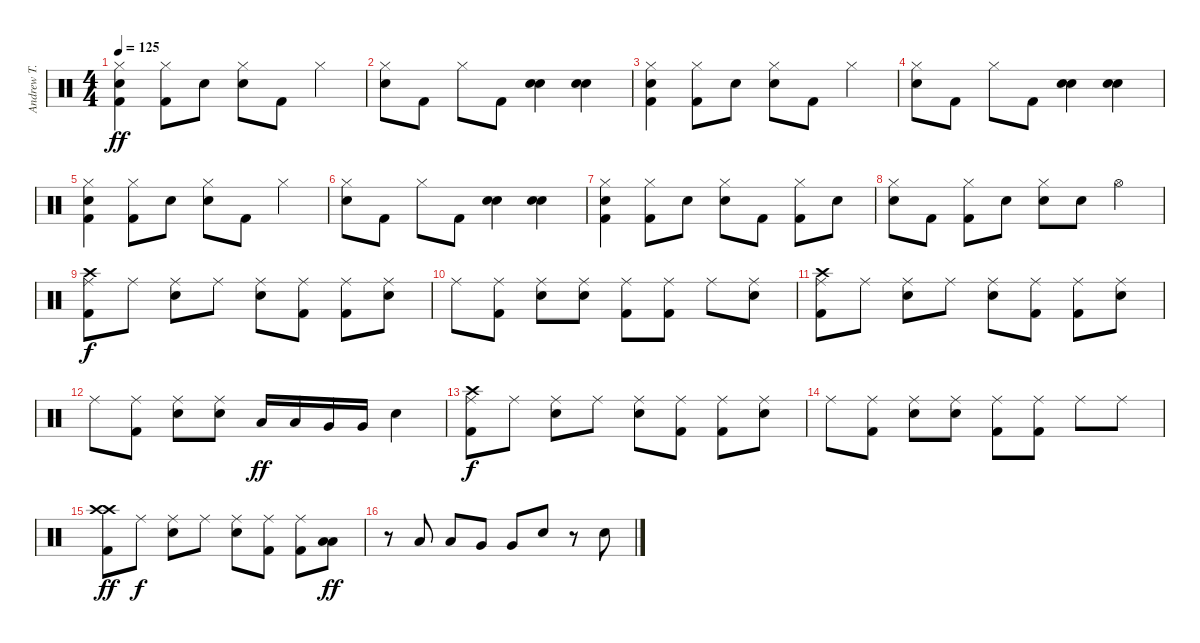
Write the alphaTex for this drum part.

\track ("Andrew T." "Andrew T.") {instrument percussion}
\staff {score}
\articulation defaults
\ts (4 4)
\tempo 125
\clef neutral
\ks c
("Hi-Hat (closed)" "Electric Snare (hit)" "Kick (hit) 2").4{dy ff} ("Hi-Hat (closed)" "Kick (hit) 2").8 "Electric Snare (hit)".8 ("Hi-Hat (closed)" "Electric Snare (hit)").8 "Kick (hit) 2".8 "Hi-Hat (closed)".4 |
("Hi-Hat (closed)" "Electric Snare (hit)").8 "Kick (hit) 2".8 "Hi-Hat (closed)".8 "Kick (hit) 2".8 ("Electric Snare (hit)" "Electric Snare (hit)").4 ("Electric Snare (hit)" "Electric Snare (hit)").4 |
("Hi-Hat (closed)" "Electric Snare (hit)" "Kick (hit) 2").4 ("Hi-Hat (closed)" "Kick (hit) 2").8 "Electric Snare (hit)".8 ("Hi-Hat (closed)" "Electric Snare (hit)").8 "Kick (hit) 2".8 "Hi-Hat (closed)".4 |
("Hi-Hat (closed)" "Electric Snare (hit)").8 "Kick (hit) 2".8 "Hi-Hat (closed)".8 "Kick (hit) 2".8 ("Electric Snare (hit)" "Electric Snare (hit)").4 ("Electric Snare (hit)" "Electric Snare (hit)").4 |
("Hi-Hat (closed)" "Electric Snare (hit)" "Kick (hit) 2").4 ("Hi-Hat (closed)" "Kick (hit) 2").8 "Electric Snare (hit)".8 ("Hi-Hat (closed)" "Electric Snare (hit)").8 "Kick (hit) 2".8 "Hi-Hat (closed)".4 |
("Hi-Hat (closed)" "Electric Snare (hit)").8 "Kick (hit) 2".8 "Hi-Hat (closed)".8 "Kick (hit) 2".8 ("Electric Snare (hit)" "Electric Snare (hit)").4 ("Electric Snare (hit)" "Electric Snare (hit)").4 |
("Hi-Hat (closed)" "Electric Snare (hit)" "Kick (hit) 2").4 ("Hi-Hat (closed)" "Kick (hit) 2").8 "Electric Snare (hit)".8 ("Hi-Hat (closed)" "Electric Snare (hit)").8 "Kick (hit) 2".8 ("Kick (hit) 2" "Hi-Hat (closed)").8 "Electric Snare (hit)".8 |
("Electric Snare (hit)" "Hi-Hat (closed)").8 "Kick (hit) 2".8 ("Hi-Hat (closed)" "Kick (hit) 2").8 "Electric Snare (hit)".8 ("Electric Snare (hit)" "Hi-Hat (closed)").8 "Electric Snare (hit)".8 "Hi-Hat (open)".4 |
("Crash high (hit)" "Ride (middle)" "Kick (hit) 2").8{dy f} "Ride (middle)".8 ("Ride (middle)" "Electric Snare (hit)").8 "Ride (middle)".8 ("Ride (middle)" "Electric Snare (hit)").8 ("Ride (middle)" "Kick (hit) 2").8 ("Ride (middle)" "Kick (hit) 2").8 ("Ride (middle)" "Electric Snare (hit)").8 |
"Ride (middle)".8 ("Ride (middle)" "Kick (hit) 2").8 ("Ride (middle)" "Electric Snare (hit)").8 ("Ride (middle)" "Electric Snare (hit)").8 ("Ride (middle)" "Kick (hit) 2").8 ("Ride (middle)" "Kick (hit) 2").8 "Ride (middle)".8 ("Ride (middle)" "Electric Snare (hit)").8 |
("Crash high (hit)" "Ride (middle)" "Kick (hit) 2").8 "Ride (middle)".8 ("Ride (middle)" "Electric Snare (hit)").8 "Ride (middle)".8 ("Ride (middle)" "Electric Snare (hit)").8 ("Ride (middle)" "Kick (hit) 2").8 ("Ride (middle)" "Kick (hit) 2").8 ("Ride (middle)" "Electric Snare (hit)").8 |
"Ride (middle)".8 ("Ride (middle)" "Kick (hit) 2").8 ("Ride (middle)" "Electric Snare (hit)").8 ("Ride (middle)" "Electric Snare (hit)").8 "Low Tom (hit)".16{dy ff} "Low Tom (hit)".16 "Very Low Tom (hit)".16 "Very Low Tom (hit)".16 "Electric Snare (hit)".4 |
("Crash high (hit)" "Ride (middle)" "Kick (hit) 2").8{dy f} "Ride (middle)".8 ("Ride (middle)" "Electric Snare (hit)").8 "Ride (middle)".8 ("Ride (middle)" "Electric Snare (hit)").8 ("Ride (middle)" "Kick (hit) 2").8 ("Ride (middle)" "Kick (hit) 2").8 ("Ride (middle)" "Electric Snare (hit)").8 |
"Ride (middle)".8 ("Ride (middle)" "Kick (hit) 2").8 ("Ride (middle)" "Electric Snare (hit)").8 ("Ride (middle)" "Electric Snare (hit)").8 ("Ride (middle)" "Kick (hit) 2").8 ("Ride (middle)" "Kick (hit) 2").8 "Ride (middle)".8 "Ride (middle)".8 |
("Crash high (hit)" "Crash high (hit)" "Kick (hit) 2").8{dy ff} "Ride (middle)".8{dy f} ("Ride (middle)" "Electric Snare (hit)").8 "Ride (middle)".8 ("Ride (middle)" "Electric Snare (hit)").8 ("Ride (middle)" "Kick (hit) 2").8 ("Ride (middle)" "Kick (hit) 2").8 ("Low Tom (hit)" "Low Tom (hit)").8{dy ff} |
r.8 "Low Tom (hit)".8 "Low Tom (hit)".8 "Very Low Tom (hit)".8 "Very Low Tom (hit)".8 "Electric Snare (hit)".8 r.8 "Electric Snare (hit)".8
